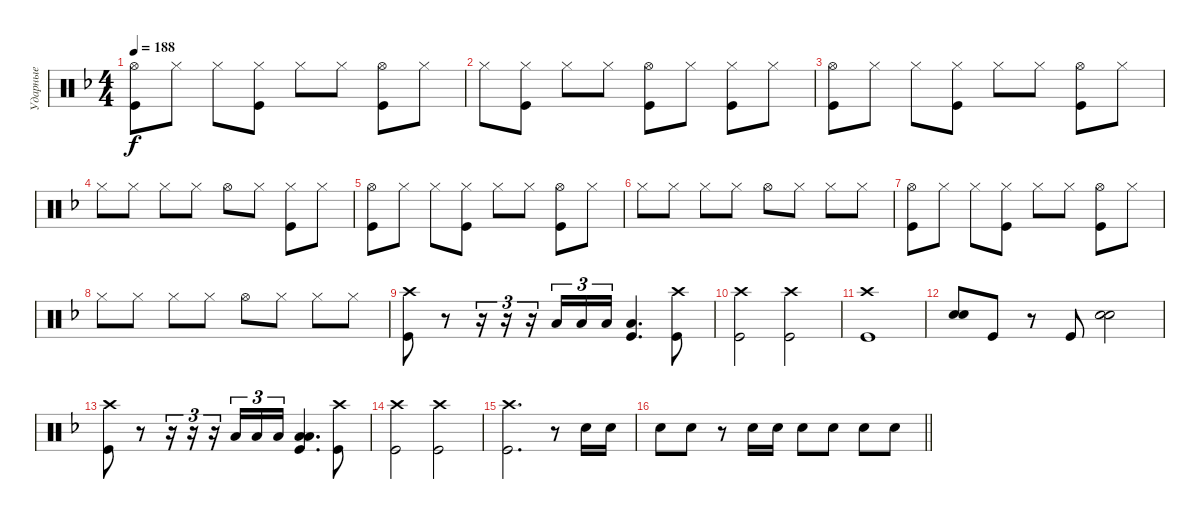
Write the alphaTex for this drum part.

\track ("Ударные" "Ударные") {instrument percussion}
\staff {score}
\articulation defaults
\ts (4 4)
\tempo 188
\clef neutral
\ks dminor
("Kick (hit)" "Hi-Hat (open)").8{dy f} "Hi-Hat (closed)".8 "Hi-Hat (closed)".8 ("Hi-Hat (closed)" "Kick (hit)").8 "Hi-Hat (closed)".8 "Hi-Hat (closed)".8 ("Hi-Hat (open)" "Kick (hit)").8 "Hi-Hat (closed)".8 |
"Hi-Hat (closed)".8 ("Hi-Hat (closed)" "Kick (hit)").8 "Hi-Hat (closed)".8 "Hi-Hat (closed)".8 ("Hi-Hat (open)" "Kick (hit)").8 "Hi-Hat (closed)".8 ("Hi-Hat (closed)" "Kick (hit)").8 "Hi-Hat (closed)".8 |
("Kick (hit)" "Hi-Hat (open)").8 "Hi-Hat (closed)".8 "Hi-Hat (closed)".8 ("Hi-Hat (closed)" "Kick (hit)").8 "Hi-Hat (closed)".8 "Hi-Hat (closed)".8 ("Hi-Hat (open)" "Kick (hit)").8 "Hi-Hat (closed)".8 |
"Hi-Hat (closed)".8 "Hi-Hat (closed)".8 "Hi-Hat (closed)".8 "Hi-Hat (closed)".8 "Hi-Hat (open)".8 "Hi-Hat (closed)".8 ("Hi-Hat (closed)" "Kick (hit)").8 "Hi-Hat (closed)".8 |
("Kick (hit)" "Hi-Hat (open)").8 "Hi-Hat (closed)".8 "Hi-Hat (closed)".8 ("Hi-Hat (closed)" "Kick (hit)").8 "Hi-Hat (closed)".8 "Hi-Hat (closed)".8 ("Hi-Hat (open)" "Kick (hit)").8 "Hi-Hat (closed)".8 |
"Hi-Hat (closed)".8 "Hi-Hat (closed)".8 "Hi-Hat (closed)".8 "Hi-Hat (closed)".8 "Hi-Hat (open)".8 "Hi-Hat (closed)".8 "Hi-Hat (closed)".8 "Hi-Hat (closed)".8 |
("Kick (hit)" "Hi-Hat (open)").8 "Hi-Hat (closed)".8 "Hi-Hat (closed)".8 ("Hi-Hat (closed)" "Kick (hit)").8 "Hi-Hat (closed)".8 "Hi-Hat (closed)".8 ("Hi-Hat (open)" "Kick (hit)").8 "Hi-Hat (closed)".8 |
"Hi-Hat (closed)".8 "Hi-Hat (closed)".8 "Hi-Hat (closed)".8 "Hi-Hat (closed)".8 "Hi-Hat (open)".8 "Hi-Hat (closed)".8 "Hi-Hat (closed)".8 "Hi-Hat (closed)".8 |
("Kick (hit)" "Crash high (hit)").8 r.8 r.16{tu (3 2)} r.16{tu (3 2)} r.16{tu (3 2)} "Low Floor Tom (hit)".16{tu (3 2)} "Low Floor Tom (hit)".16{tu (3 2)} "Low Floor Tom (hit)".16{tu (3 2)} ("Kick (hit)" "Low Floor Tom (hit)").4{d} ("Kick (hit)" "Crash high (hit)").8 |
("Kick (hit)" "Crash high (hit)").2 ("Kick (hit)" "Crash high (hit)").2 |
("Kick (hit)" "Crash high (hit)").1 |
("Snare (hit) 2" "Snare (hit) 2").8{bd 240} "Kick (hit)".8 r.8 "Kick (hit)".8 ("Snare (hit) 2" "Snare (hit) 2").2{bd 240} |
("Kick (hit)" "Crash high (hit)").8 r.8 r.16{tu (3 2)} r.16{tu (3 2)} r.16{tu (3 2)} "Low Floor Tom (hit)".16{tu (3 2)} "Low Floor Tom (hit)".16{tu (3 2)} "Low Floor Tom (hit)".16{tu (3 2)} ("Low Floor Tom (hit)" "Low Tom (hit)" "Kick (hit)").4{d bd 240} ("Kick (hit)" "Crash high (hit)").8 |
("Kick (hit)" "Crash high (hit)").2 ("Kick (hit)" "Crash high (hit)").2 |
("Kick (hit)" "Crash high (hit)").2{d} r.8 "Snare (hit) 2".16 "Snare (hit) 2".16 |
\barLineRight lightlight "Snare (hit) 2".8 "Snare (hit) 2".8
r.8 "Snare (hit) 2".16 "Snare (hit) 2".16 "Snare (hit) 2".8 "Snare (hit) 2".8 "Snare (hit) 2".8 "Snare (hit) 2".8
